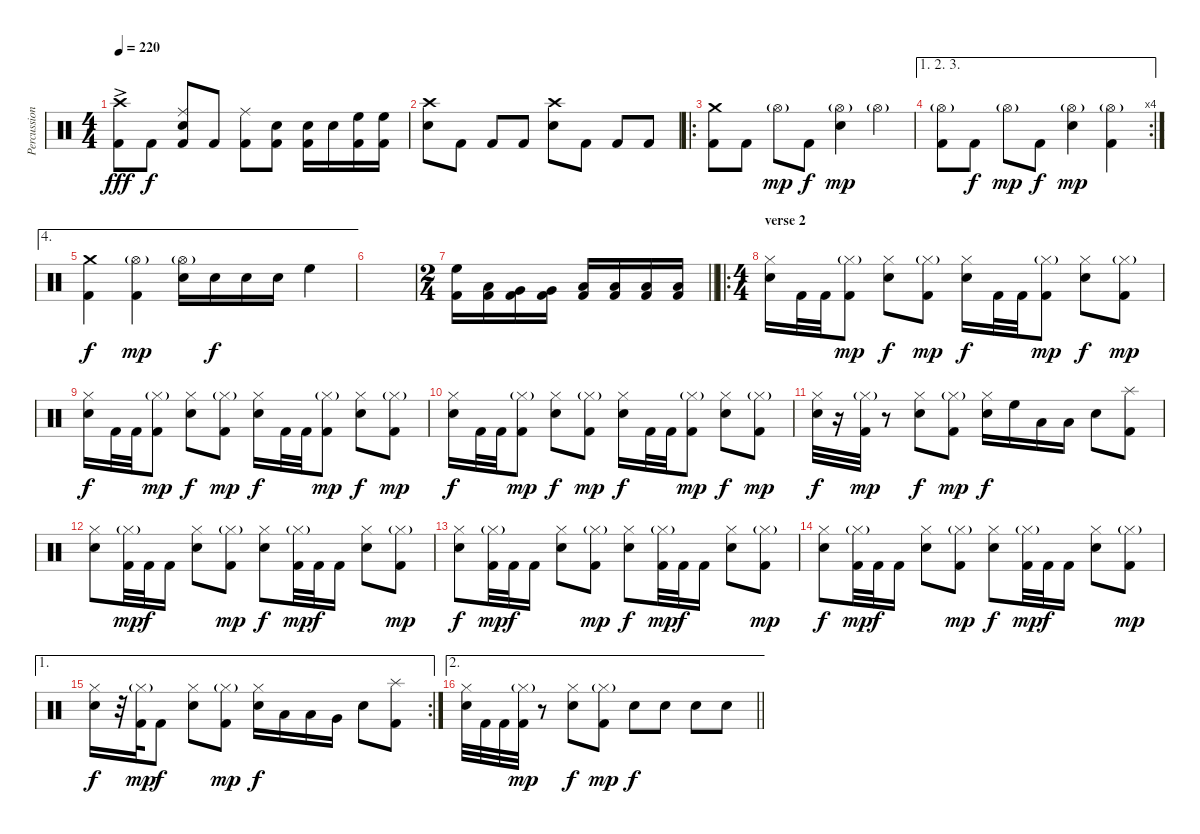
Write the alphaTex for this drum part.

\track ("Percussion" "Percussion") {instrument percussion}
\staff {score}
\articulation defaults
\ts (4 4)
\tempo 220
\clef neutral
\ks c
("Crash high (hit)"{ac} "Kick (hit) 2").8{dy fff} "Kick (hit) 2".8{dy f} ("Ride (middle)" "Electric Snare (hit)" "Kick (hit) 2").8 "Kick (hit) 2".8 ("Ride (middle)" "Kick (hit) 2").8 ("Electric Snare (hit)" "Kick (hit) 2").8 ("Electric Snare (hit)" "Kick (hit) 2").16 "Electric Snare (hit)".16 ("High Floor Tom (hit)" "Kick (hit) 2").16 ("High Floor Tom (hit)" "Kick (hit) 2").16 |
("Crash high (hit)" "Electric Snare (hit)").8 "Kick (hit) 2".8 "Kick (hit) 2".8 "Kick (hit) 2".8 ("Crash high (hit)" "Electric Snare (hit)").8 "Kick (hit) 2".8 "Kick (hit) 2".8 "Kick (hit) 2".8 |
\ro
("Crash medium (hit)" "Kick (hit) 2").8 "Kick (hit) 2".8 "Hi-Hat (open)"{g}.8{dy mp} "Kick (hit) 2".8{dy f} ("Hi-Hat (open)"{g} "Electric Snare (hit)").4{dy mp} "Hi-Hat (open)"{g}.4 |
\ae (1 2 3)
\rc 4
("Hi-Hat (open)"{g} "Kick (hit) 2").8 "Kick (hit) 2".8{dy f} "Hi-Hat (open)"{g}.8{dy mp} "Kick (hit) 2".8{dy f} ("Hi-Hat (open)"{g} "Electric Snare (hit)").4{dy mp} ("Hi-Hat (open)"{g} "Kick (hit) 2").4 |
\ae 4
("Crash medium (hit)" "Kick (hit) 2").4{dy f} ("Hi-Hat (open)"{g} "Kick (hit) 2").4{dy mp} ("Hi-Hat (open)"{g} "Electric Snare (hit)").16 "Electric Snare (hit)".16{dy f} "Electric Snare (hit)".16 "Electric Snare (hit)".16 "High Floor Tom (hit)".4 |
|
\ts (2 4)
\barLineRight lightlight
("High Floor Tom (hit)" "Kick (hit) 2").16 ("Low Tom (hit)" "Kick (hit) 2").16 ("Very Low Tom (hit)" "Kick (hit) 2").16 ("Very Low Tom (hit)" "Kick (hit) 2").16 ("Low Tom (hit)" "Kick (hit) 2").16 ("Low Tom (hit)" "Kick (hit) 2").16 ("Low Floor Tom (hit)" "Kick (hit) 2").16 ("Low Floor Tom (hit)" "Kick (hit) 2").16 |
\ro
\ts (4 4)
\section ("" "verse 2")
("Hi-Hat (closed)" "Electric Snare (hit)").16 "Kick (hit) 2".32 "Kick (hit) 2".32 ("Hi-Hat (closed)"{g} "Kick (hit) 2").8{dy mp} ("Hi-Hat (closed)" "Electric Snare (hit)").8{dy f} ("Hi-Hat (closed)"{g} "Kick (hit) 2").8{dy mp} ("Hi-Hat (closed)" "Electric Snare (hit)").16{dy f} "Kick (hit) 2".32 "Kick (hit) 2".32 ("Hi-Hat (closed)"{g} "Kick (hit) 2").8{dy mp} ("Hi-Hat (closed)" "Electric Snare (hit)").8{dy f} ("Hi-Hat (closed)"{g} "Kick (hit) 2").8{dy mp} |
("Hi-Hat (closed)" "Electric Snare (hit)").16{dy f} "Kick (hit) 2".32 "Kick (hit) 2".32 ("Hi-Hat (closed)"{g} "Kick (hit) 2").8{dy mp} ("Hi-Hat (closed)" "Electric Snare (hit)").8{dy f} ("Hi-Hat (closed)"{g} "Kick (hit) 2").8{dy mp} ("Hi-Hat (closed)" "Electric Snare (hit)").16{dy f} "Kick (hit) 2".32 "Kick (hit) 2".32 ("Hi-Hat (closed)"{g} "Kick (hit) 2").8{dy mp} ("Hi-Hat (closed)" "Electric Snare (hit)").8{dy f} ("Hi-Hat (closed)"{g} "Kick (hit) 2").8{dy mp} |
("Hi-Hat (closed)" "Electric Snare (hit)").16{dy f} "Kick (hit) 2".32 "Kick (hit) 2".32 ("Hi-Hat (closed)"{g} "Kick (hit) 2").8{dy mp} ("Hi-Hat (closed)" "Electric Snare (hit)").8{dy f} ("Hi-Hat (closed)"{g} "Kick (hit) 2").8{dy mp} ("Hi-Hat (closed)" "Electric Snare (hit)").16{dy f} "Kick (hit) 2".32 "Kick (hit) 2".32 ("Hi-Hat (closed)"{g} "Kick (hit) 2").8{dy mp} ("Hi-Hat (closed)" "Electric Snare (hit)").8{dy f} ("Hi-Hat (closed)"{g} "Kick (hit) 2").8{dy mp} |
("Hi-Hat (closed)" "Electric Snare (hit)").32{dy f} r.16 ("Hi-Hat (closed)"{g} "Kick (hit) 2").32{dy mp} r.8 ("Hi-Hat (closed)" "Electric Snare (hit)").8{dy f} ("Hi-Hat (closed)"{g} "Kick (hit) 2").8{dy mp} ("Hi-Hat (closed)" "Electric Snare (hit)").16{dy f} "High Floor Tom (hit)".16 "Low Tom (hit)".16 "Low Tom (hit)".16 "Electric Snare (hit)".8 ("Splash (hit)" "Kick (hit) 2").8 |
("Hi-Hat (closed)" "Electric Snare (hit)").8 ("Hi-Hat (closed)"{g} "Kick (hit) 2").32{dy mp} "Kick (hit) 2".32{dy f} "Kick (hit) 2".16 ("Hi-Hat (closed)" "Electric Snare (hit)").8 ("Hi-Hat (closed)"{g} "Kick (hit) 2").8{dy mp} ("Hi-Hat (closed)" "Electric Snare (hit)").8{dy f} ("Hi-Hat (closed)"{g} "Kick (hit) 2").32{dy mp} "Kick (hit) 2".32{dy f} "Kick (hit) 2".16 ("Hi-Hat (closed)" "Electric Snare (hit)").8 ("Hi-Hat (closed)"{g} "Kick (hit) 2").8{dy mp} |
("Hi-Hat (closed)" "Electric Snare (hit)").8{dy f} ("Hi-Hat (closed)"{g} "Kick (hit) 2").32{dy mp} "Kick (hit) 2".32{dy f} "Kick (hit) 2".16 ("Hi-Hat (closed)" "Electric Snare (hit)").8 ("Hi-Hat (closed)"{g} "Kick (hit) 2").8{dy mp} ("Hi-Hat (closed)" "Electric Snare (hit)").8{dy f} ("Hi-Hat (closed)"{g} "Kick (hit) 2").32{dy mp} "Kick (hit) 2".32{dy f} "Kick (hit) 2".16 ("Hi-Hat (closed)" "Electric Snare (hit)").8 ("Hi-Hat (closed)"{g} "Kick (hit) 2").8{dy mp} |
("Hi-Hat (closed)" "Electric Snare (hit)").8{dy f} ("Hi-Hat (closed)"{g} "Kick (hit) 2").32{dy mp} "Kick (hit) 2".32{dy f} "Kick (hit) 2".16 ("Hi-Hat (closed)" "Electric Snare (hit)").8 ("Hi-Hat (closed)"{g} "Kick (hit) 2").8{dy mp} ("Hi-Hat (closed)" "Electric Snare (hit)").8{dy f} ("Hi-Hat (closed)"{g} "Kick (hit) 2").32{dy mp} "Kick (hit) 2".32{dy f} "Kick (hit) 2".16 ("Hi-Hat (closed)" "Electric Snare (hit)").8 ("Hi-Hat (closed)"{g} "Kick (hit) 2").8{dy mp} |
\ae 1
\rc 2
("Hi-Hat (closed)" "Electric Snare (hit)").16{dy f} r.32 ("Hi-Hat (closed)"{g} "Kick (hit) 2").32{dy mp} "Kick (hit) 2".8{dy f} ("Hi-Hat (closed)" "Electric Snare (hit)").8 ("Hi-Hat (closed)"{g} "Kick (hit) 2").8{dy mp} ("Hi-Hat (closed)" "Electric Snare (hit)").16{dy f} "Low Tom (hit)".16 "Low Tom (hit)".16 "Very Low Tom (hit)".16 "Electric Snare (hit)".8 ("Splash (hit)" "Kick (hit) 2").8 |
\ae 2
\barLineRight lightlight
("Hi-Hat (closed)" "Electric Snare (hit)").32 "Kick (hit) 2".32 "Kick (hit) 2".32 ("Hi-Hat (closed)"{g} "Kick (hit) 2").32{dy mp} r.8 ("Hi-Hat (closed)" "Electric Snare (hit)").8{dy f} ("Hi-Hat (closed)"{g} "Kick (hit) 2").8{dy mp} "Electric Snare (hit)".8{dy f} "Electric Snare (hit)".8 "Electric Snare (hit)".8 "Electric Snare (hit)".8
